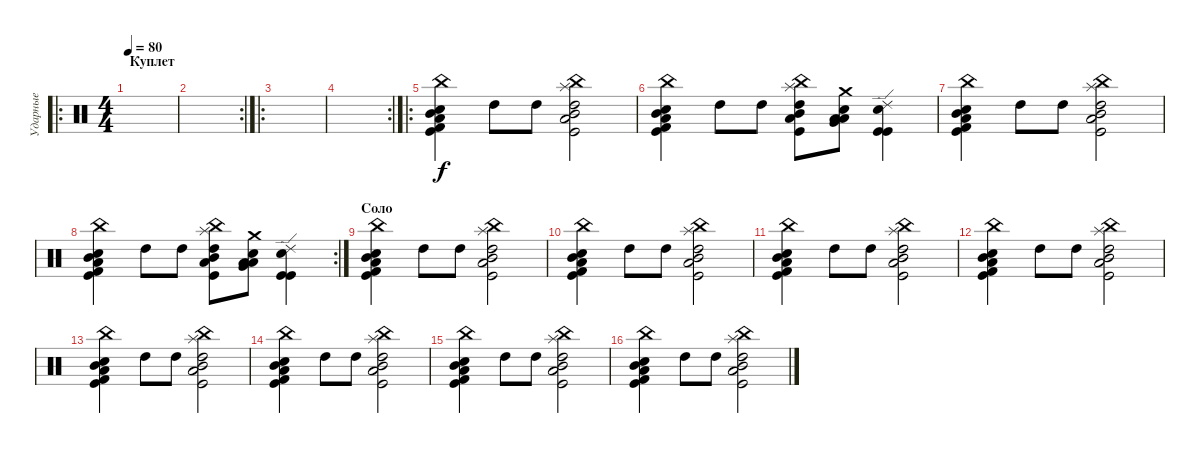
\track ("Ударные" "Ударные") {instrument percussion}
\staff {score}
\articulation defaults
\ro
\ts (4 4)
\section ("" "Куплет")
\tempo 80
\clef neutral
\ks c
|
\rc 2
|
\ro
|
\rc 2
|
\ro
("Low Tom (hit)" "Mid Tom (hit)" "Snare (hit) 2" "Kick (hit) 2" "Kick (hit)" "China (hit)").4 "High Tom (hit)".8 "High Tom (hit)".8 ("Low Tom (hit)" "Mid Tom (hit)" "High Tom (hit)" "Kick (hit)" "China (hit)" "Splash (hit)").2 |
("Low Tom (hit)" "Mid Tom (hit)" "Snare (hit) 2" "Kick (hit) 2" "Kick (hit)" "China (hit)").4 "High Tom (hit)".8 "High Tom (hit)".8 ("Low Tom (hit)" "Mid Tom (hit)" "High Tom (hit)" "Kick (hit)" "China (hit)" "Splash (hit)").8 ("Low Floor Tom (hit)" "Low Tom (hit)" "Very Low Tom (hit)" "Snare (hit) 2" "Crash medium (hit)").8 ("Kick (hit)" "Kick (hit)" "Snare (hit) 2" "Ride (edge) 2").4 |
("Low Tom (hit)" "Mid Tom (hit)" "Snare (hit) 2" "Kick (hit) 2" "Kick (hit)" "China (hit)").4 "High Tom (hit)".8 "High Tom (hit)".8 ("Low Tom (hit)" "Mid Tom (hit)" "High Tom (hit)" "Kick (hit)" "China (hit)" "Splash (hit)").2 |
\rc 2
("Low Tom (hit)" "Mid Tom (hit)" "Snare (hit) 2" "Kick (hit) 2" "Kick (hit)" "China (hit)").4 "High Tom (hit)".8 "High Tom (hit)".8 ("Low Tom (hit)" "Mid Tom (hit)" "High Tom (hit)" "Kick (hit)" "China (hit)" "Splash (hit)").8 ("Low Floor Tom (hit)" "Low Tom (hit)" "Very Low Tom (hit)" "Snare (hit) 2" "Crash medium (hit)").8 ("Kick (hit)" "Kick (hit)" "Snare (hit) 2" "Ride (edge) 2").4 |
\section ("" "Соло")
("Low Tom (hit)" "Mid Tom (hit)" "Snare (hit) 2" "Kick (hit) 2" "Kick (hit)" "China (hit)").4 "High Tom (hit)".8 "High Tom (hit)".8 ("Low Tom (hit)" "Mid Tom (hit)" "High Tom (hit)" "Kick (hit)" "China (hit)" "Splash (hit)").2 |
("Low Tom (hit)" "Mid Tom (hit)" "Snare (hit) 2" "Kick (hit) 2" "Kick (hit)" "China (hit)").4 "High Tom (hit)".8 "High Tom (hit)".8 ("Low Tom (hit)" "Mid Tom (hit)" "High Tom (hit)" "Kick (hit)" "China (hit)" "Splash (hit)").2 |
("Low Tom (hit)" "Mid Tom (hit)" "Snare (hit) 2" "Kick (hit) 2" "Kick (hit)" "China (hit)").4 "High Tom (hit)".8 "High Tom (hit)".8 ("Low Tom (hit)" "Mid Tom (hit)" "High Tom (hit)" "Kick (hit)" "China (hit)" "Splash (hit)").2 |
("Low Tom (hit)" "Mid Tom (hit)" "Snare (hit) 2" "Kick (hit) 2" "Kick (hit)" "China (hit)").4 "High Tom (hit)".8 "High Tom (hit)".8 ("Low Tom (hit)" "Mid Tom (hit)" "High Tom (hit)" "Kick (hit)" "China (hit)" "Splash (hit)").2 |
("Low Tom (hit)" "Mid Tom (hit)" "Snare (hit) 2" "Kick (hit) 2" "Kick (hit)" "China (hit)").4 "High Tom (hit)".8 "High Tom (hit)".8 ("Low Tom (hit)" "Mid Tom (hit)" "High Tom (hit)" "Kick (hit)" "China (hit)" "Splash (hit)").2 |
("Low Tom (hit)" "Mid Tom (hit)" "Snare (hit) 2" "Kick (hit) 2" "Kick (hit)" "China (hit)").4 "High Tom (hit)".8 "High Tom (hit)".8 ("Low Tom (hit)" "Mid Tom (hit)" "High Tom (hit)" "Kick (hit)" "China (hit)" "Splash (hit)").2 |
("Low Tom (hit)" "Mid Tom (hit)" "Snare (hit) 2" "Kick (hit) 2" "Kick (hit)" "China (hit)").4 "High Tom (hit)".8 "High Tom (hit)".8 ("Low Tom (hit)" "Mid Tom (hit)" "High Tom (hit)" "Kick (hit)" "China (hit)" "Splash (hit)").2 |
("Low Tom (hit)" "Mid Tom (hit)" "Snare (hit) 2" "Kick (hit) 2" "Kick (hit)" "China (hit)").4 "High Tom (hit)".8 "High Tom (hit)".8 ("Low Tom (hit)" "Mid Tom (hit)" "High Tom (hit)" "Kick (hit)" "China (hit)" "Splash (hit)").2
